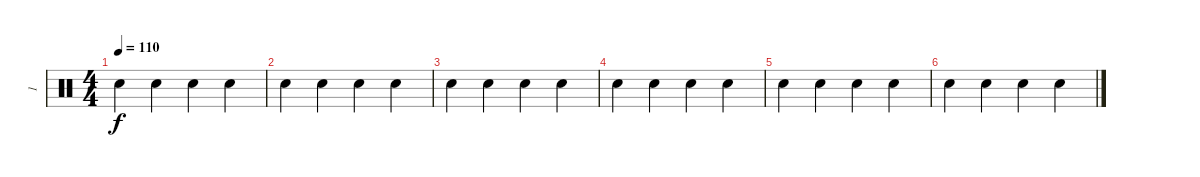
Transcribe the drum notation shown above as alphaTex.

\track ("1" "1") {instrument percussion}
\staff {score}
\articulation defaults
\ts (4 4)
\tempo 110
\clef neutral
\ks c "Electric Snare (hit)".4{dy f} "Electric Snare (hit)".4 "Electric Snare (hit)".4 "Electric Snare (hit)".4
|
"Electric Snare (hit)".4 "Electric Snare (hit)".4 "Electric Snare (hit)".4 "Electric Snare (hit)".4 |
"Electric Snare (hit)".4 "Electric Snare (hit)".4 "Electric Snare (hit)".4 "Electric Snare (hit)".4 |
"Electric Snare (hit)".4 "Electric Snare (hit)".4 "Electric Snare (hit)".4 "Electric Snare (hit)".4 |
"Electric Snare (hit)".4 "Electric Snare (hit)".4 "Electric Snare (hit)".4 "Electric Snare (hit)".4 |
"Electric Snare (hit)".4 "Electric Snare (hit)".4 "Electric Snare (hit)".4 "Electric Snare (hit)".4
